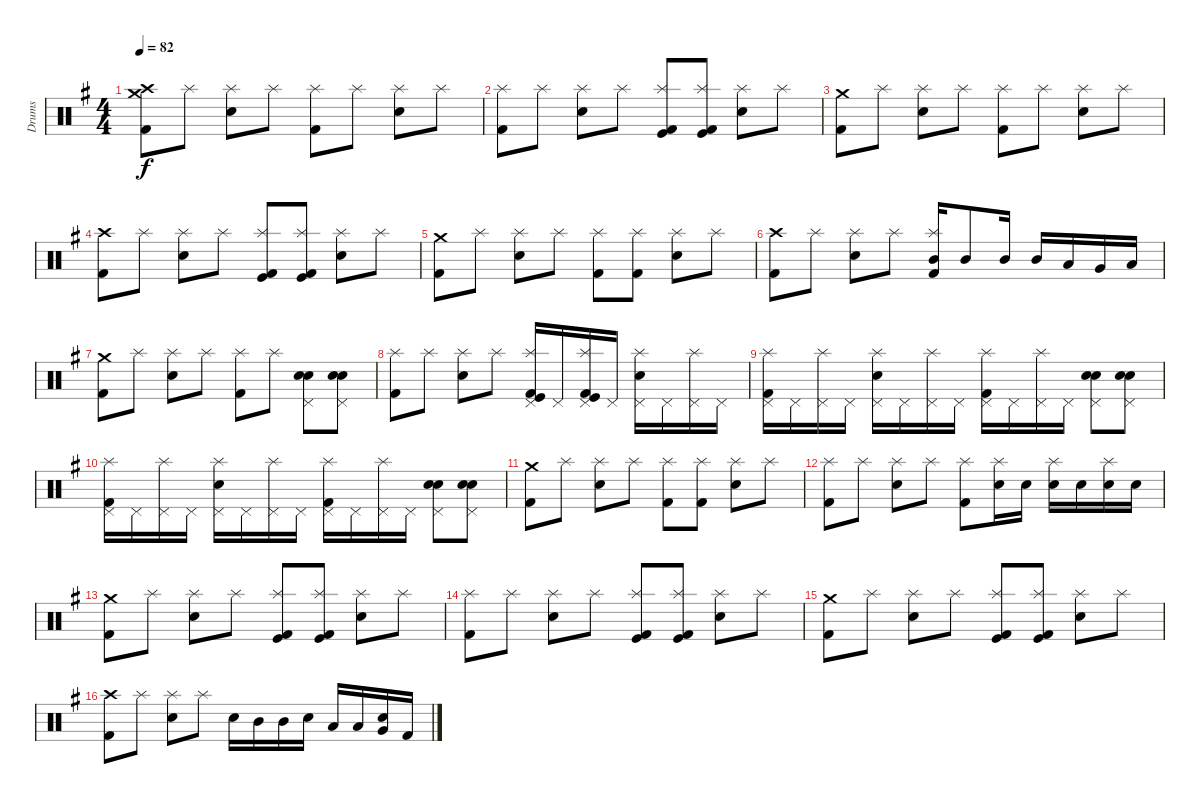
\track ("Drums" "Drums") {instrument percussion}
\staff {score}
\articulation defaults
\ts (4 4)
\tempo 82
\clef neutral
\ks eminor
("Kick (hit) 2" "Crash high (hit)" "Crash medium (hit)").8{dy f} "Splash (hit)".8 ("Splash (hit)" "Snare (hit) 2").8 "Splash (hit)".8 ("Splash (hit)" "Kick (hit) 2").8 "Splash (hit)".8 ("Splash (hit)" "Snare (hit) 2").8 "Splash (hit)".8 |
("Splash (hit)" "Kick (hit) 2").8 "Splash (hit)".8 ("Splash (hit)" "Snare (hit) 2").8 "Splash (hit)".8 ("Splash (hit)" "Kick (hit)" "Kick (hit) 2").8 ("Splash (hit)" "Kick (hit)" "Kick (hit) 2").8 ("Splash (hit)" "Snare (hit) 2").8 "Splash (hit)".8 |
("Kick (hit) 2" "Crash medium (hit)").8 "Splash (hit)".8 ("Splash (hit)" "Snare (hit) 2").8 "Splash (hit)".8 ("Splash (hit)" "Kick (hit) 2").8 "Splash (hit)".8 ("Splash (hit)" "Snare (hit) 2").8 "Splash (hit)".8 |
("Kick (hit) 2" "Crash high (hit)").8 "Splash (hit)".8 ("Splash (hit)" "Snare (hit) 2").8 "Splash (hit)".8 ("Splash (hit)" "Kick (hit)" "Kick (hit) 2").8 ("Splash (hit)" "Kick (hit)" "Kick (hit) 2").8 ("Splash (hit)" "Snare (hit) 2").8 "Splash (hit)".8 |
("Kick (hit) 2" "Crash medium (hit)").8 "Splash (hit)".8 ("Splash (hit)" "Snare (hit) 2").8 "Splash (hit)".8 ("Splash (hit)" "Kick (hit) 2").8 ("Splash (hit)" "Kick (hit) 2").8 ("Splash (hit)" "Snare (hit) 2").8 "Splash (hit)".8 |
("Kick (hit) 2" "Crash high (hit)").8 "Splash (hit)".8 ("Splash (hit)" "Snare (hit) 2").8 "Splash (hit)".8 ("Kick (hit) 2" "Mid Tom (hit)" "Splash (hit)").16 "Mid Tom (hit)".8 "Mid Tom (hit)".16 "Mid Tom (hit)".16 "Low Tom (hit)".16 "Very Low Tom (hit)".16 "Low Floor Tom (hit)".16 |
("Kick (hit) 2" "Crash medium (hit)").8 "Splash (hit)".8 ("Splash (hit)" "Snare (hit) 2").8 "Splash (hit)".8 ("Splash (hit)" "Kick (hit) 2").8 "Splash (hit)".8 ("Pedal Hi-Hat (hit)" "Electric Snare (hit)" "Snare (hit) 2").8 ("Pedal Hi-Hat (hit)" "Electric Snare (hit)" "Snare (hit) 2").8 |
("Splash (hit)" "Kick (hit) 2").8 "Splash (hit)".8 ("Splash (hit)" "Snare (hit) 2").8 "Splash (hit)".8 ("Pedal Hi-Hat (hit)" "Splash (hit)" "Kick (hit)" "Kick (hit) 2").16 "Pedal Hi-Hat (hit)".16 ("Pedal Hi-Hat (hit)" "Splash (hit)" "Kick (hit)" "Kick (hit) 2").16 "Pedal Hi-Hat (hit)".16 ("Pedal Hi-Hat (hit)" "Splash (hit)" "Snare (hit) 2").16 "Pedal Hi-Hat (hit)".16 ("Pedal Hi-Hat (hit)" "Splash (hit)").16 "Pedal Hi-Hat (hit)".16 |
("Pedal Hi-Hat (hit)" "Splash (hit)" "Kick (hit) 2").16 "Pedal Hi-Hat (hit)".16 ("Pedal Hi-Hat (hit)" "Splash (hit)").16 "Pedal Hi-Hat (hit)".16 ("Pedal Hi-Hat (hit)" "Splash (hit)" "Snare (hit) 2").16 "Pedal Hi-Hat (hit)".16 ("Pedal Hi-Hat (hit)" "Splash (hit)").16 "Pedal Hi-Hat (hit)".16 ("Pedal Hi-Hat (hit)" "Splash (hit)" "Kick (hit) 2").16 "Pedal Hi-Hat (hit)".16 ("Pedal Hi-Hat (hit)" "Splash (hit)").16 "Pedal Hi-Hat (hit)".16 ("Pedal Hi-Hat (hit)" "Electric Snare (hit)" "Snare (hit) 2").8 ("Pedal Hi-Hat (hit)" "Electric Snare (hit)" "Snare (hit) 2").8 |
("Splash (hit)" "Kick (hit) 2" "Pedal Hi-Hat (hit)").16 "Pedal Hi-Hat (hit)".16 ("Pedal Hi-Hat (hit)" "Splash (hit)").16 "Pedal Hi-Hat (hit)".16 ("Pedal Hi-Hat (hit)" "Splash (hit)" "Snare (hit) 2").16 "Pedal Hi-Hat (hit)".16 ("Pedal Hi-Hat (hit)" "Splash (hit)").16 "Pedal Hi-Hat (hit)".16 ("Pedal Hi-Hat (hit)" "Splash (hit)" "Kick (hit) 2").16 "Pedal Hi-Hat (hit)".16 ("Pedal Hi-Hat (hit)" "Splash (hit)").16 "Pedal Hi-Hat (hit)".16 ("Pedal Hi-Hat (hit)" "Electric Snare (hit)" "Snare (hit) 2").8 ("Pedal Hi-Hat (hit)" "Snare (hit) 2" "Electric Snare (hit)").8 |
("Crash medium (hit)" "Kick (hit) 2").8 "Splash (hit)".8 ("Splash (hit)" "Snare (hit) 2").8 "Splash (hit)".8 ("Splash (hit)" "Kick (hit) 2").8 ("Splash (hit)" "Kick (hit) 2").8 ("Splash (hit)" "Snare (hit) 2").8 "Splash (hit)".8 |
("Splash (hit)" "Kick (hit) 2").8 "Splash (hit)".8 ("Splash (hit)" "Snare (hit) 2").8 "Splash (hit)".8 ("Splash (hit)" "Kick (hit) 2").8 ("Splash (hit)" "Snare (hit) 2").16 "Snare (hit) 2".16 ("Splash (hit)" "Snare (hit) 2").16 "Snare (hit) 2".16 ("Splash (hit)" "Snare (hit) 2").16 "Snare (hit) 2".16 |
("Kick (hit) 2" "Crash medium (hit)").8 "Splash (hit)".8 ("Splash (hit)" "Snare (hit) 2").8 "Splash (hit)".8 ("Splash (hit)" "Kick (hit)" "Kick (hit) 2").8 ("Splash (hit)" "Kick (hit)" "Kick (hit) 2").8 ("Splash (hit)" "Snare (hit) 2").8 "Splash (hit)".8 |
("Splash (hit)" "Kick (hit) 2").8 "Splash (hit)".8 ("Splash (hit)" "Snare (hit) 2").8 "Splash (hit)".8 ("Splash (hit)" "Kick (hit)" "Kick (hit) 2").8 ("Splash (hit)" "Kick (hit)" "Kick (hit) 2").8 ("Splash (hit)" "Snare (hit) 2").8 "Splash (hit)".8 |
("Crash medium (hit)" "Kick (hit) 2").8 "Splash (hit)".8 ("Splash (hit)" "Snare (hit) 2").8 "Splash (hit)".8 ("Splash (hit)" "Kick (hit)" "Kick (hit) 2").8 ("Splash (hit)" "Kick (hit)" "Kick (hit) 2").8 ("Splash (hit)" "Snare (hit) 2").8 "Splash (hit)".8 |
("Crash high (hit)" "Kick (hit) 2").8 "Splash (hit)".8 ("Splash (hit)" "Snare (hit) 2").8 "Splash (hit)".8 "Snare (hit) 2".16 "Mid Tom (hit)".16 "Mid Tom (hit)".16 "Snare (hit) 2".16 "Low Tom (hit)".16 "Low Tom (hit)".16 ("Snare (hit) 2" "Very Low Tom (hit)").16 "Kick (hit) 2".16
